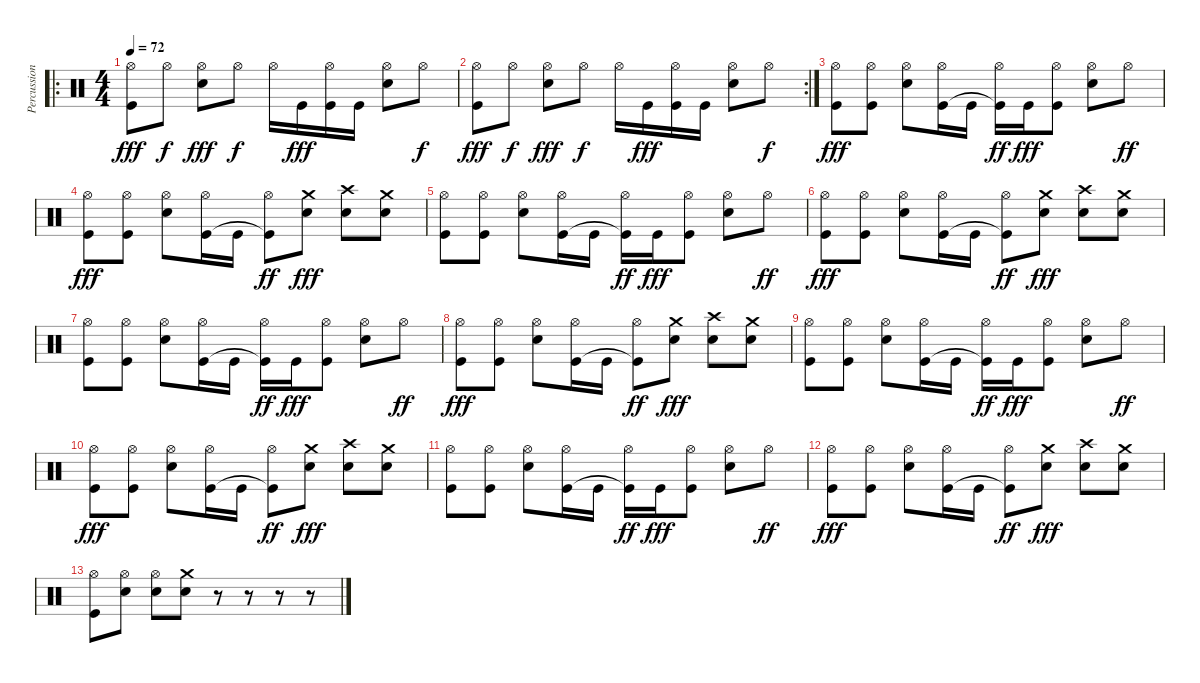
\track ("Percussions" "Percussion") {instrument percussion}
\staff {score}
\articulation defaults
\ro
\ts (4 4)
\tempo 72
\clef neutral
\ks c
("Hi-Hat (open)" "Kick (hit)").8{dy fff} "Hi-Hat (open)".8{dy f} ("Hi-Hat (open)" "Snare (hit) 2").8{dy fff} "Hi-Hat (open)".8{dy f} "Hi-Hat (open)".16 "Kick (hit)".16{dy fff} ("Hi-Hat (open)" "Kick (hit)").16 "Kick (hit)".16 ("Hi-Hat (open)" "Snare (hit) 2").8 "Hi-Hat (open)".8{dy f} |
\rc 2
("Hi-Hat (open)" "Kick (hit)").8{dy fff} "Hi-Hat (open)".8{dy f} ("Hi-Hat (open)" "Snare (hit) 2").8{dy fff} "Hi-Hat (open)".8{dy f} "Hi-Hat (open)".16 "Kick (hit)".16{dy fff} ("Hi-Hat (open)" "Kick (hit)").16 "Kick (hit)".16 ("Hi-Hat (open)" "Snare (hit) 2").8 "Hi-Hat (open)".8{dy f} |
("Hi-Hat (open)" "Kick (hit)").8{dy fff} ("Hi-Hat (open)" "Kick (hit)").8 ("Hi-Hat (open)" "Snare (hit) 2").8 ("Hi-Hat (open)" "Kick (hit)").16 "Kick (hit)".16 ("Hi-Hat (open)" "Kick (hit)"{t}).16{dy ff} "Kick (hit)".16{dy fff} ("Hi-Hat (open)" "Kick (hit)").8 ("Hi-Hat (open)" "Snare (hit) 2").8 "Hi-Hat (open)".8{dy ff} |
("Hi-Hat (open)" "Kick (hit)").8{dy fff} ("Hi-Hat (open)" "Kick (hit)").8 ("Hi-Hat (open)" "Snare (hit) 2").8 ("Hi-Hat (open)" "Kick (hit)").16 "Kick (hit)".16 ("Hi-Hat (open)" "Kick (hit)"{t}).8{dy ff} ("Crash medium (hit)" "Snare (hit) 2").8{dy fff} ("Crash high (hit)" "Snare (hit) 2").8 ("Crash medium (hit)" "Snare (hit) 2").8 |
("Hi-Hat (open)" "Kick (hit)").8 ("Hi-Hat (open)" "Kick (hit)").8 ("Hi-Hat (open)" "Snare (hit) 2").8 ("Hi-Hat (open)" "Kick (hit)").16 "Kick (hit)".16 ("Hi-Hat (open)" "Kick (hit)"{t}).16{dy ff} "Kick (hit)".16{dy fff} ("Hi-Hat (open)" "Kick (hit)").8 ("Hi-Hat (open)" "Snare (hit) 2").8 "Hi-Hat (open)".8{dy ff} |
("Hi-Hat (open)" "Kick (hit)").8{dy fff} ("Hi-Hat (open)" "Kick (hit)").8 ("Hi-Hat (open)" "Snare (hit) 2").8 ("Hi-Hat (open)" "Kick (hit)").16 "Kick (hit)".16 ("Hi-Hat (open)" "Kick (hit)"{t}).8{dy ff} ("Crash medium (hit)" "Snare (hit) 2").8{dy fff} ("Crash high (hit)" "Snare (hit) 2").8 ("Crash medium (hit)" "Snare (hit) 2").8 |
("Hi-Hat (open)" "Kick (hit)").8 ("Hi-Hat (open)" "Kick (hit)").8 ("Hi-Hat (open)" "Snare (hit) 2").8 ("Hi-Hat (open)" "Kick (hit)").16 "Kick (hit)".16 ("Hi-Hat (open)" "Kick (hit)"{t}).16{dy ff} "Kick (hit)".16{dy fff} ("Hi-Hat (open)" "Kick (hit)").8 ("Hi-Hat (open)" "Snare (hit) 2").8 "Hi-Hat (open)".8{dy ff} |
("Hi-Hat (open)" "Kick (hit)").8{dy fff} ("Hi-Hat (open)" "Kick (hit)").8 ("Hi-Hat (open)" "Snare (hit) 2").8 ("Hi-Hat (open)" "Kick (hit)").16 "Kick (hit)".16 ("Hi-Hat (open)" "Kick (hit)"{t}).8{dy ff} ("Crash medium (hit)" "Snare (hit) 2").8{dy fff} ("Crash high (hit)" "Snare (hit) 2").8 ("Crash medium (hit)" "Snare (hit) 2").8 |
("Hi-Hat (open)" "Kick (hit)").8 ("Hi-Hat (open)" "Kick (hit)").8 ("Hi-Hat (open)" "Snare (hit) 2").8 ("Hi-Hat (open)" "Kick (hit)").16 "Kick (hit)".16 ("Hi-Hat (open)" "Kick (hit)"{t}).16{dy ff} "Kick (hit)".16{dy fff} ("Hi-Hat (open)" "Kick (hit)").8 ("Hi-Hat (open)" "Snare (hit) 2").8 "Hi-Hat (open)".8{dy ff} |
("Hi-Hat (open)" "Kick (hit)").8{dy fff} ("Hi-Hat (open)" "Kick (hit)").8 ("Hi-Hat (open)" "Snare (hit) 2").8 ("Hi-Hat (open)" "Kick (hit)").16 "Kick (hit)".16 ("Hi-Hat (open)" "Kick (hit)"{t}).8{dy ff} ("Crash medium (hit)" "Snare (hit) 2").8{dy fff} ("Crash high (hit)" "Snare (hit) 2").8 ("Crash medium (hit)" "Snare (hit) 2").8 |
("Hi-Hat (open)" "Kick (hit)").8 ("Hi-Hat (open)" "Kick (hit)").8 ("Hi-Hat (open)" "Snare (hit) 2").8 ("Hi-Hat (open)" "Kick (hit)").16 "Kick (hit)".16 ("Hi-Hat (open)" "Kick (hit)"{t}).16{dy ff} "Kick (hit)".16{dy fff} ("Hi-Hat (open)" "Kick (hit)").8 ("Hi-Hat (open)" "Snare (hit) 2").8 "Hi-Hat (open)".8{dy ff} |
("Hi-Hat (open)" "Kick (hit)").8{dy fff} ("Hi-Hat (open)" "Kick (hit)").8 ("Hi-Hat (open)" "Snare (hit) 2").8 ("Hi-Hat (open)" "Kick (hit)").16 "Kick (hit)".16 ("Hi-Hat (open)" "Kick (hit)"{t}).8{dy ff} ("Crash medium (hit)" "Snare (hit) 2").8{dy fff} ("Crash high (hit)" "Snare (hit) 2").8 ("Crash medium (hit)" "Snare (hit) 2").8 |
("Hi-Hat (open)" "Kick (hit)").8 ("Hi-Hat (open)" "Snare (hit) 2").8 ("Hi-Hat (open)" "Snare (hit) 2").8 ("Crash medium (hit)" "Snare (hit) 2").8 r.8 r.8 r.8 r.8
